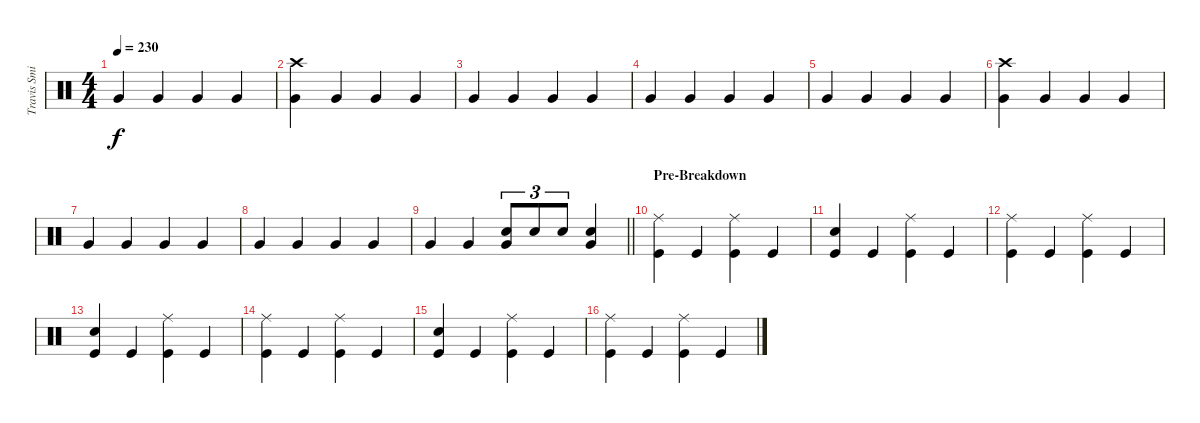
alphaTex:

\track ("Travis Smith" "Travis Smi") {instrument percussion}
\staff {score}
\articulation defaults
\ts (4 4)
\tempo 230
\clef neutral
\ks c "Very Low Tom (hit)".4{dy f} "Very Low Tom (hit)".4 "Very Low Tom (hit)".4 "Very Low Tom (hit)".4
|
("Crash high (hit)" "Very Low Tom (hit)").4 "Very Low Tom (hit)".4 "Very Low Tom (hit)".4 "Very Low Tom (hit)".4 |
"Very Low Tom (hit)".4 "Very Low Tom (hit)".4 "Very Low Tom (hit)".4 "Very Low Tom (hit)".4 |
"Very Low Tom (hit)".4 "Very Low Tom (hit)".4 "Very Low Tom (hit)".4 "Very Low Tom (hit)".4 |
"Very Low Tom (hit)".4 "Very Low Tom (hit)".4 "Very Low Tom (hit)".4 "Very Low Tom (hit)".4 |
("Crash high (hit)" "Very Low Tom (hit)").4 "Very Low Tom (hit)".4 "Very Low Tom (hit)".4 "Very Low Tom (hit)".4 |
"Very Low Tom (hit)".4 "Very Low Tom (hit)".4 "Very Low Tom (hit)".4 "Very Low Tom (hit)".4 |
"Very Low Tom (hit)".4 "Very Low Tom (hit)".4 "Very Low Tom (hit)".4 "Very Low Tom (hit)".4 |
\barLineRight lightlight "Very Low Tom (hit)".4 "Very Low Tom (hit)".4
("Snare (hit) 2" "Very Low Tom (hit)").8{tu (3 2)} "Snare (hit) 2".8{tu (3 2)} "Snare (hit) 2".8{tu (3 2)} ("Snare (hit) 2" "Very Low Tom (hit)").4 |
\section ("" "Pre-Breakdown")
("Ride (middle)" "Kick (hit)").4 "Kick (hit)".4 ("Ride (middle)" "Kick (hit)").4 "Kick (hit)".4 |
("Snare (hit) 2" "Kick (hit)").4 "Kick (hit)".4 ("Ride (middle)" "Kick (hit)").4 "Kick (hit)".4 |
("Ride (middle)" "Kick (hit)").4 "Kick (hit)".4 ("Ride (middle)" "Kick (hit)").4 "Kick (hit)".4 |
("Snare (hit) 2" "Kick (hit)").4 "Kick (hit)".4 ("Ride (middle)" "Kick (hit)").4 "Kick (hit)".4 |
("Ride (middle)" "Kick (hit)").4 "Kick (hit)".4 ("Ride (middle)" "Kick (hit)").4 "Kick (hit)".4 |
("Snare (hit) 2" "Kick (hit)").4 "Kick (hit)".4 ("Ride (middle)" "Kick (hit)").4 "Kick (hit)".4 |
("Ride (middle)" "Kick (hit)").4 "Kick (hit)".4 ("Ride (middle)" "Kick (hit)").4 "Kick (hit)".4
